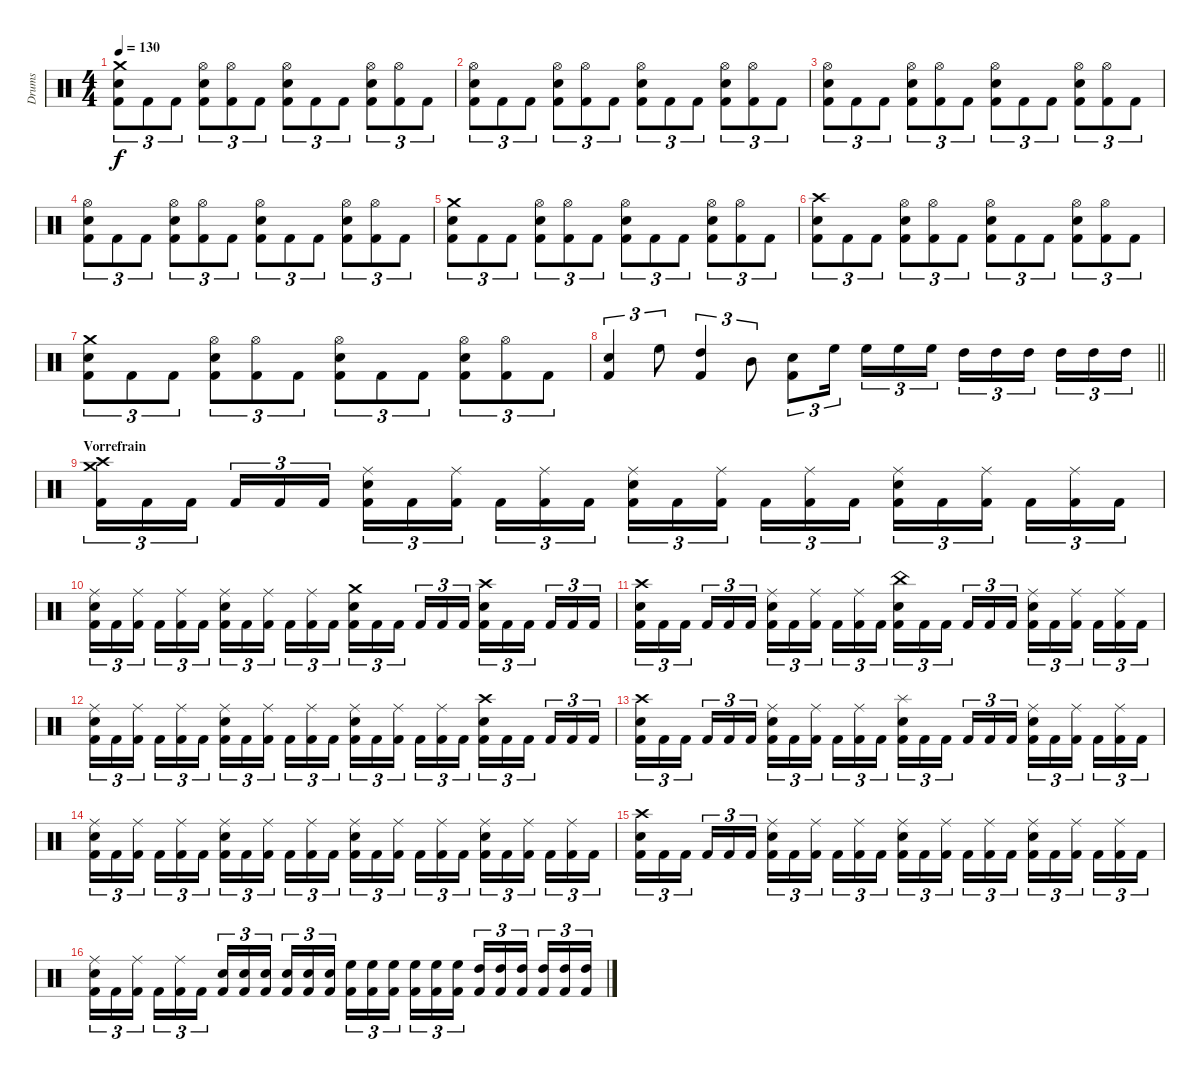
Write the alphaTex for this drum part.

\track ("Drums" "Drums") {instrument percussion}
\staff {score}
\articulation defaults
\ts (4 4)
\tempo 130
\clef neutral
\ks c
("Crash medium (hit)" "Electric Snare (hit)" "Kick (hit) 2").8{tu (3 2) dy f} "Kick (hit) 2".8{tu (3 2)} "Kick (hit) 2".8{tu (3 2)} ("Hi-Hat (open)" "Electric Snare (hit)" "Kick (hit) 2").8{tu (3 2)} ("Hi-Hat (open)" "Kick (hit) 2").8{tu (3 2)} "Kick (hit) 2".8{tu (3 2)} ("Hi-Hat (open)" "Electric Snare (hit)" "Kick (hit) 2").8{tu (3 2)} "Kick (hit) 2".8{tu (3 2)} "Kick (hit) 2".8{tu (3 2)} ("Hi-Hat (open)" "Electric Snare (hit)" "Kick (hit) 2").8{tu (3 2)} ("Hi-Hat (open)" "Kick (hit) 2").8{tu (3 2)} "Kick (hit) 2".8{tu (3 2)} |
("Hi-Hat (open)" "Electric Snare (hit)" "Kick (hit) 2").8{tu (3 2)} "Kick (hit) 2".8{tu (3 2)} "Kick (hit) 2".8{tu (3 2)} ("Hi-Hat (open)" "Electric Snare (hit)" "Kick (hit) 2").8{tu (3 2)} ("Hi-Hat (open)" "Kick (hit) 2").8{tu (3 2)} "Kick (hit) 2".8{tu (3 2)} ("Hi-Hat (open)" "Electric Snare (hit)" "Kick (hit) 2").8{tu (3 2)} "Kick (hit) 2".8{tu (3 2)} "Kick (hit) 2".8{tu (3 2)} ("Hi-Hat (open)" "Electric Snare (hit)" "Kick (hit) 2").8{tu (3 2)} ("Hi-Hat (open)" "Kick (hit) 2").8{tu (3 2)} "Kick (hit) 2".8{tu (3 2)} |
("Hi-Hat (open)" "Electric Snare (hit)" "Kick (hit) 2").8{tu (3 2)} "Kick (hit) 2".8{tu (3 2)} "Kick (hit) 2".8{tu (3 2)} ("Hi-Hat (open)" "Electric Snare (hit)" "Kick (hit) 2").8{tu (3 2)} ("Hi-Hat (open)" "Kick (hit) 2").8{tu (3 2)} "Kick (hit) 2".8{tu (3 2)} ("Hi-Hat (open)" "Electric Snare (hit)" "Kick (hit) 2").8{tu (3 2)} "Kick (hit) 2".8{tu (3 2)} "Kick (hit) 2".8{tu (3 2)} ("Hi-Hat (open)" "Electric Snare (hit)" "Kick (hit) 2").8{tu (3 2)} ("Hi-Hat (open)" "Kick (hit) 2").8{tu (3 2)} "Kick (hit) 2".8{tu (3 2)} |
("Hi-Hat (open)" "Electric Snare (hit)" "Kick (hit) 2").8{tu (3 2)} "Kick (hit) 2".8{tu (3 2)} "Kick (hit) 2".8{tu (3 2)} ("Hi-Hat (open)" "Electric Snare (hit)" "Kick (hit) 2").8{tu (3 2)} ("Hi-Hat (open)" "Kick (hit) 2").8{tu (3 2)} "Kick (hit) 2".8{tu (3 2)} ("Hi-Hat (open)" "Electric Snare (hit)" "Kick (hit) 2").8{tu (3 2)} "Kick (hit) 2".8{tu (3 2)} "Kick (hit) 2".8{tu (3 2)} ("Hi-Hat (open)" "Electric Snare (hit)" "Kick (hit) 2").8{tu (3 2)} ("Hi-Hat (open)" "Kick (hit) 2").8{tu (3 2)} "Kick (hit) 2".8{tu (3 2)} |
("Crash medium (hit)" "Electric Snare (hit)" "Kick (hit) 2").8{tu (3 2)} "Kick (hit) 2".8{tu (3 2)} "Kick (hit) 2".8{tu (3 2)} ("Hi-Hat (open)" "Electric Snare (hit)" "Kick (hit) 2").8{tu (3 2)} ("Hi-Hat (open)" "Kick (hit) 2").8{tu (3 2)} "Kick (hit) 2".8{tu (3 2)} ("Hi-Hat (open)" "Electric Snare (hit)" "Kick (hit) 2").8{tu (3 2)} "Kick (hit) 2".8{tu (3 2)} "Kick (hit) 2".8{tu (3 2)} ("Hi-Hat (open)" "Electric Snare (hit)" "Kick (hit) 2").8{tu (3 2)} ("Hi-Hat (open)" "Kick (hit) 2").8{tu (3 2)} "Kick (hit) 2".8{tu (3 2)} |
("Crash high (hit)" "Electric Snare (hit)" "Kick (hit) 2").8{tu (3 2)} "Kick (hit) 2".8{tu (3 2)} "Kick (hit) 2".8{tu (3 2)} ("Hi-Hat (open)" "Electric Snare (hit)" "Kick (hit) 2").8{tu (3 2)} ("Hi-Hat (open)" "Kick (hit) 2").8{tu (3 2)} "Kick (hit) 2".8{tu (3 2)} ("Hi-Hat (open)" "Electric Snare (hit)" "Kick (hit) 2").8{tu (3 2)} "Kick (hit) 2".8{tu (3 2)} "Kick (hit) 2".8{tu (3 2)} ("Hi-Hat (open)" "Electric Snare (hit)" "Kick (hit) 2").8{tu (3 2)} ("Hi-Hat (open)" "Kick (hit) 2").8{tu (3 2)} "Kick (hit) 2".8{tu (3 2)} |
("Crash medium (hit)" "Electric Snare (hit)" "Kick (hit) 2").8{tu (3 2)} "Kick (hit) 2".8{tu (3 2)} "Kick (hit) 2".8{tu (3 2)} ("Hi-Hat (open)" "Electric Snare (hit)" "Kick (hit) 2").8{tu (3 2)} ("Hi-Hat (open)" "Kick (hit) 2").8{tu (3 2)} "Kick (hit) 2".8{tu (3 2)} ("Hi-Hat (open)" "Electric Snare (hit)" "Kick (hit) 2").8{tu (3 2)} "Kick (hit) 2".8{tu (3 2)} "Kick (hit) 2".8{tu (3 2)} ("Hi-Hat (open)" "Electric Snare (hit)" "Kick (hit) 2").8{tu (3 2)} ("Hi-Hat (open)" "Kick (hit) 2").8{tu (3 2)} "Kick (hit) 2".8{tu (3 2)} |
\barLineRight lightlight
("Electric Snare (hit)" "Kick (hit) 2").4{tu (3 2)} "High Floor Tom (hit)".8{tu (3 2)} ("High Tom (hit)" "Kick (hit) 2").4{tu (3 2)} "Mid Tom (hit)".8{tu (3 2)} ("Electric Snare (hit)" "Kick (hit) 2").8{tu (3 2)} "High Floor Tom (hit)".16{tu (3 2) beam splitsecondary} "High Floor Tom (hit)".16{tu (3 2)} "High Floor Tom (hit)".16{tu (3 2)} "High Floor Tom (hit)".16{tu (3 2)} "High Tom (hit)".16{tu (3 2)} "High Tom (hit)".16{tu (3 2)} "High Tom (hit)".16{tu (3 2) beam splitsecondary} "High Tom (hit)".16{tu (3 2)} "High Tom (hit)".16{tu (3 2)} "High Tom (hit)".16{tu (3 2)} |
\section ("" "Vorrefrain")
("Crash medium (hit)" "Crash high (hit)" "Kick (hit) 2").16{tu (3 2)} "Kick (hit) 2".16{tu (3 2)} "Kick (hit) 2".16{tu (3 2) beam splitsecondary} "Kick (hit) 2".16{tu (3 2)} "Kick (hit) 2".16{tu (3 2)} "Kick (hit) 2".16{tu (3 2)} ("Ride (middle)" "Electric Snare (hit)" "Kick (hit) 2").16{tu (3 2)} "Kick (hit) 2".16{tu (3 2)} ("Ride (middle)" "Kick (hit) 2").16{tu (3 2) beam splitsecondary} "Kick (hit) 2".16{tu (3 2)} ("Ride (middle)" "Kick (hit) 2").16{tu (3 2)} "Kick (hit) 2".16{tu (3 2)} ("Ride (middle)" "Electric Snare (hit)" "Kick (hit) 2").16{tu (3 2)} "Kick (hit) 2".16{tu (3 2)} ("Ride (middle)" "Kick (hit) 2").16{tu (3 2) beam splitsecondary} "Kick (hit) 2".16{tu (3 2)} ("Ride (middle)" "Kick (hit) 2").16{tu (3 2)} "Kick (hit) 2".16{tu (3 2)} ("Ride (middle)" "Electric Snare (hit)" "Kick (hit) 2").16{tu (3 2)} "Kick (hit) 2".16{tu (3 2)} ("Ride (middle)" "Kick (hit) 2").16{tu (3 2) beam splitsecondary} "Kick (hit) 2".16{tu (3 2)} ("Ride (middle)" "Kick (hit) 2").16{tu (3 2)} "Kick (hit) 2".16{tu (3 2)} |
("Ride (middle)" "Electric Snare (hit)" "Kick (hit) 2").16{tu (3 2)} "Kick (hit) 2".16{tu (3 2)} ("Ride (middle)" "Kick (hit) 2").16{tu (3 2) beam splitsecondary} "Kick (hit) 2".16{tu (3 2)} ("Ride (middle)" "Kick (hit) 2").16{tu (3 2)} "Kick (hit) 2".16{tu (3 2)} ("Ride (middle)" "Electric Snare (hit)" "Kick (hit) 2").16{tu (3 2)} "Kick (hit) 2".16{tu (3 2)} ("Ride (middle)" "Kick (hit) 2").16{tu (3 2) beam splitsecondary} "Kick (hit) 2".16{tu (3 2)} ("Ride (middle)" "Kick (hit) 2").16{tu (3 2)} "Kick (hit) 2".16{tu (3 2)} ("Crash medium (hit)" "Electric Snare (hit)" "Kick (hit) 2").16{tu (3 2)} "Kick (hit) 2".16{tu (3 2)} "Kick (hit) 2".16{tu (3 2) beam splitsecondary} "Kick (hit) 2".16{tu (3 2)} "Kick (hit) 2".16{tu (3 2)} "Kick (hit) 2".16{tu (3 2)} ("Crash high (hit)" "Electric Snare (hit)" "Kick (hit) 2").16{tu (3 2)} "Kick (hit) 2".16{tu (3 2)} "Kick (hit) 2".16{tu (3 2) beam splitsecondary} "Kick (hit) 2".16{tu (3 2)} "Kick (hit) 2".16{tu (3 2)} "Kick (hit) 2".16{tu (3 2)} |
("Crash high (hit)" "Electric Snare (hit)" "Kick (hit) 2").16{tu (3 2)} "Kick (hit) 2".16{tu (3 2)} "Kick (hit) 2".16{tu (3 2) beam splitsecondary} "Kick (hit) 2".16{tu (3 2)} "Kick (hit) 2".16{tu (3 2)} "Kick (hit) 2".16{tu (3 2)} ("Ride (middle)" "Electric Snare (hit)" "Kick (hit) 2").16{tu (3 2)} "Kick (hit) 2".16{tu (3 2)} ("Ride (middle)" "Kick (hit) 2").16{tu (3 2) beam splitsecondary} "Kick (hit) 2".16{tu (3 2)} ("Ride (middle)" "Kick (hit) 2").16{tu (3 2)} "Kick (hit) 2".16{tu (3 2)} ("China (hit)" "Electric Snare (hit)" "Kick (hit) 2").16{tu (3 2)} "Kick (hit) 2".16{tu (3 2)} "Kick (hit) 2".16{tu (3 2) beam splitsecondary} "Kick (hit) 2".16{tu (3 2)} "Kick (hit) 2".16{tu (3 2)} "Kick (hit) 2".16{tu (3 2)} ("Ride (middle)" "Electric Snare (hit)" "Kick (hit) 2").16{tu (3 2)} "Kick (hit) 2".16{tu (3 2)} ("Ride (middle)" "Kick (hit) 2").16{tu (3 2) beam splitsecondary} "Kick (hit) 2".16{tu (3 2)} ("Ride (middle)" "Kick (hit) 2").16{tu (3 2)} "Kick (hit) 2".16{tu (3 2)} |
("Ride (middle)" "Electric Snare (hit)" "Kick (hit) 2").16{tu (3 2)} "Kick (hit) 2".16{tu (3 2)} ("Ride (middle)" "Kick (hit) 2").16{tu (3 2) beam splitsecondary} "Kick (hit) 2".16{tu (3 2)} ("Ride (middle)" "Kick (hit) 2").16{tu (3 2)} "Kick (hit) 2".16{tu (3 2)} ("Ride (middle)" "Electric Snare (hit)" "Kick (hit) 2").16{tu (3 2)} "Kick (hit) 2".16{tu (3 2)} ("Ride (middle)" "Kick (hit) 2").16{tu (3 2) beam splitsecondary} "Kick (hit) 2".16{tu (3 2)} ("Ride (middle)" "Kick (hit) 2").16{tu (3 2)} "Kick (hit) 2".16{tu (3 2)} ("Ride (middle)" "Electric Snare (hit)" "Kick (hit) 2").16{tu (3 2)} "Kick (hit) 2".16{tu (3 2)} ("Ride (middle)" "Kick (hit) 2").16{tu (3 2) beam splitsecondary} "Kick (hit) 2".16{tu (3 2)} ("Ride (middle)" "Kick (hit) 2").16{tu (3 2)} "Kick (hit) 2".16{tu (3 2)} ("Crash high (hit)" "Electric Snare (hit)" "Kick (hit) 2").16{tu (3 2)} "Kick (hit) 2".16{tu (3 2)} "Kick (hit) 2".16{tu (3 2) beam splitsecondary} "Kick (hit) 2".16{tu (3 2)} "Kick (hit) 2".16{tu (3 2)} "Kick (hit) 2".16{tu (3 2)} |
("Crash high (hit)" "Electric Snare (hit)" "Kick (hit) 2").16{tu (3 2)} "Kick (hit) 2".16{tu (3 2)} "Kick (hit) 2".16{tu (3 2) beam splitsecondary} "Kick (hit) 2".16{tu (3 2)} "Kick (hit) 2".16{tu (3 2)} "Kick (hit) 2".16{tu (3 2)} ("Ride (middle)" "Electric Snare (hit)" "Kick (hit) 2").16{tu (3 2)} "Kick (hit) 2".16{tu (3 2)} ("Ride (middle)" "Kick (hit) 2").16{tu (3 2) beam splitsecondary} "Kick (hit) 2".16{tu (3 2)} ("Ride (middle)" "Kick (hit) 2").16{tu (3 2)} "Kick (hit) 2".16{tu (3 2)} ("Splash (hit)" "Electric Snare (hit)" "Kick (hit) 2").16{tu (3 2)} "Kick (hit) 2".16{tu (3 2)} "Kick (hit) 2".16{tu (3 2) beam splitsecondary} "Kick (hit) 2".16{tu (3 2)} "Kick (hit) 2".16{tu (3 2)} "Kick (hit) 2".16{tu (3 2)} ("Ride (middle)" "Electric Snare (hit)" "Kick (hit) 2").16{tu (3 2)} "Kick (hit) 2".16{tu (3 2)} ("Ride (middle)" "Kick (hit) 2").16{tu (3 2) beam splitsecondary} "Kick (hit) 2".16{tu (3 2)} ("Ride (middle)" "Kick (hit) 2").16{tu (3 2)} "Kick (hit) 2".16{tu (3 2)} |
("Ride (middle)" "Electric Snare (hit)" "Kick (hit) 2").16{tu (3 2)} "Kick (hit) 2".16{tu (3 2)} ("Ride (middle)" "Kick (hit) 2").16{tu (3 2) beam splitsecondary} "Kick (hit) 2".16{tu (3 2)} ("Ride (middle)" "Kick (hit) 2").16{tu (3 2)} "Kick (hit) 2".16{tu (3 2)} ("Ride (middle)" "Electric Snare (hit)" "Kick (hit) 2").16{tu (3 2)} "Kick (hit) 2".16{tu (3 2)} ("Ride (middle)" "Kick (hit) 2").16{tu (3 2) beam splitsecondary} "Kick (hit) 2".16{tu (3 2)} ("Ride (middle)" "Kick (hit) 2").16{tu (3 2)} "Kick (hit) 2".16{tu (3 2)} ("Ride (middle)" "Electric Snare (hit)" "Kick (hit) 2").16{tu (3 2)} "Kick (hit) 2".16{tu (3 2)} ("Ride (middle)" "Kick (hit) 2").16{tu (3 2) beam splitsecondary} "Kick (hit) 2".16{tu (3 2)} ("Ride (middle)" "Kick (hit) 2").16{tu (3 2)} "Kick (hit) 2".16{tu (3 2)} ("Ride (middle)" "Electric Snare (hit)" "Kick (hit) 2").16{tu (3 2)} "Kick (hit) 2".16{tu (3 2)} ("Ride (middle)" "Kick (hit) 2").16{tu (3 2) beam splitsecondary} "Kick (hit) 2".16{tu (3 2)} ("Ride (middle)" "Kick (hit) 2").16{tu (3 2)} "Kick (hit) 2".16{tu (3 2)} |
("Crash high (hit)" "Electric Snare (hit)" "Kick (hit) 2").16{tu (3 2)} "Kick (hit) 2".16{tu (3 2)} "Kick (hit) 2".16{tu (3 2) beam splitsecondary} "Kick (hit) 2".16{tu (3 2)} "Kick (hit) 2".16{tu (3 2)} "Kick (hit) 2".16{tu (3 2)} ("Ride (middle)" "Electric Snare (hit)" "Kick (hit) 2").16{tu (3 2)} "Kick (hit) 2".16{tu (3 2)} ("Ride (middle)" "Kick (hit) 2").16{tu (3 2) beam splitsecondary} "Kick (hit) 2".16{tu (3 2)} ("Ride (middle)" "Kick (hit) 2").16{tu (3 2)} "Kick (hit) 2".16{tu (3 2)} ("Ride (middle)" "Electric Snare (hit)" "Kick (hit) 2").16{tu (3 2)} "Kick (hit) 2".16{tu (3 2)} ("Ride (middle)" "Kick (hit) 2").16{tu (3 2) beam splitsecondary} "Kick (hit) 2".16{tu (3 2)} ("Ride (middle)" "Kick (hit) 2").16{tu (3 2)} "Kick (hit) 2".16{tu (3 2)} ("Ride (middle)" "Electric Snare (hit)" "Kick (hit) 2").16{tu (3 2)} "Kick (hit) 2".16{tu (3 2)} ("Ride (middle)" "Kick (hit) 2").16{tu (3 2) beam splitsecondary} "Kick (hit) 2".16{tu (3 2)} ("Ride (middle)" "Kick (hit) 2").16{tu (3 2)} "Kick (hit) 2".16{tu (3 2)} |
("Ride (middle)" "Electric Snare (hit)" "Kick (hit) 2").16{tu (3 2)} "Kick (hit) 2".16{tu (3 2)} ("Ride (middle)" "Kick (hit) 2").16{tu (3 2) beam splitsecondary} "Kick (hit) 2".16{tu (3 2)} ("Ride (middle)" "Kick (hit) 2").16{tu (3 2)} "Kick (hit) 2".16{tu (3 2)} ("Electric Snare (hit)" "Kick (hit) 2").16{tu (3 2)} ("Electric Snare (hit)" "Kick (hit) 2").16{tu (3 2)} ("Electric Snare (hit)" "Kick (hit) 2").16{tu (3 2) beam splitsecondary} ("Electric Snare (hit)" "Kick (hit) 2").16{tu (3 2)} ("Electric Snare (hit)" "Kick (hit) 2").16{tu (3 2)} ("Electric Snare (hit)" "Kick (hit) 2").16{tu (3 2)} ("High Floor Tom (hit)" "Kick (hit) 2").16{tu (3 2)} ("High Floor Tom (hit)" "Kick (hit) 2").16{tu (3 2)} ("High Floor Tom (hit)" "Kick (hit) 2").16{tu (3 2) beam splitsecondary} ("High Floor Tom (hit)" "Kick (hit) 2").16{tu (3 2)} ("High Floor Tom (hit)" "Kick (hit) 2").16{tu (3 2)} ("High Floor Tom (hit)" "Kick (hit) 2").16{tu (3 2)} ("High Tom (hit)" "Kick (hit) 2").16{tu (3 2)} ("High Tom (hit)" "Kick (hit) 2").16{tu (3 2)} ("High Tom (hit)" "Kick (hit) 2").16{tu (3 2) beam splitsecondary} ("High Tom (hit)" "Kick (hit) 2").16{tu (3 2)} ("High Tom (hit)" "Kick (hit) 2").16{tu (3 2)} ("High Tom (hit)" "Kick (hit) 2").16{tu (3 2)}
